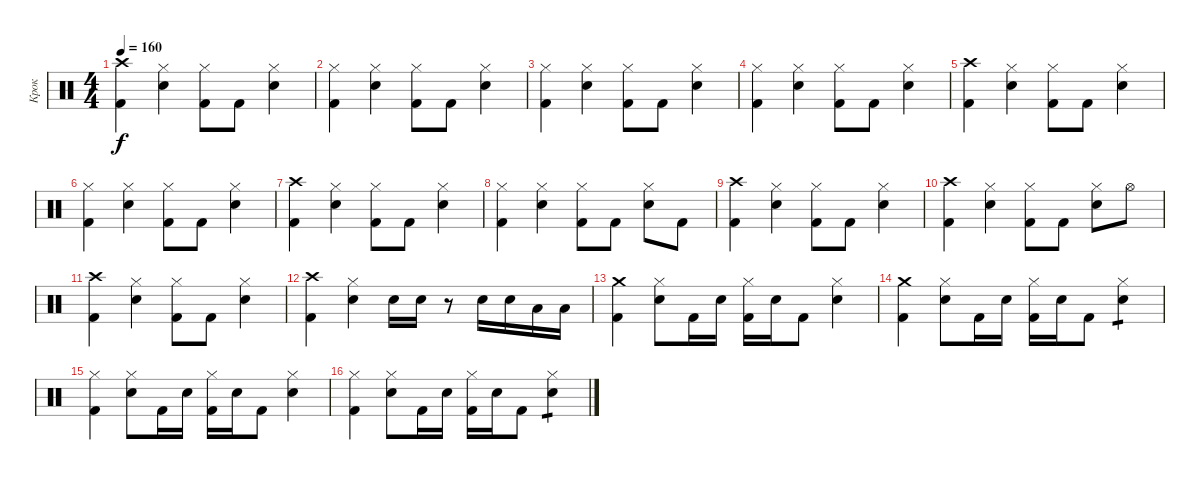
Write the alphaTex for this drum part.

\track ("Крок" "Крок") {instrument percussion}
\staff {score}
\articulation defaults
\ts (4 4)
\tempo 160
\clef neutral
\ks c
("Crash high (hit)" "Kick (hit) 2").4{dy f} ("Hi-Hat (closed)" "Electric Snare (hit)").4 ("Hi-Hat (closed)" "Kick (hit) 2").8 "Kick (hit) 2".8 ("Hi-Hat (closed)" "Electric Snare (hit)").4 |
("Hi-Hat (closed)" "Kick (hit) 2").4 ("Hi-Hat (closed)" "Electric Snare (hit)").4 ("Hi-Hat (closed)" "Kick (hit) 2").8 "Kick (hit) 2".8 ("Hi-Hat (closed)" "Electric Snare (hit)").4 |
("Hi-Hat (closed)" "Kick (hit) 2").4 ("Hi-Hat (closed)" "Electric Snare (hit)").4 ("Hi-Hat (closed)" "Kick (hit) 2").8 "Kick (hit) 2".8 ("Hi-Hat (closed)" "Electric Snare (hit)").4 |
("Hi-Hat (closed)" "Kick (hit) 2").4 ("Hi-Hat (closed)" "Electric Snare (hit)").4 ("Hi-Hat (closed)" "Kick (hit) 2").8 "Kick (hit) 2".8 ("Hi-Hat (closed)" "Electric Snare (hit)").4 |
("Crash high (hit)" "Kick (hit) 2").4 ("Hi-Hat (closed)" "Electric Snare (hit)").4 ("Hi-Hat (closed)" "Kick (hit) 2").8 "Kick (hit) 2".8 ("Hi-Hat (closed)" "Electric Snare (hit)").4 |
("Hi-Hat (closed)" "Kick (hit) 2").4 ("Hi-Hat (closed)" "Electric Snare (hit)").4 ("Hi-Hat (closed)" "Kick (hit) 2").8 "Kick (hit) 2".8 ("Hi-Hat (closed)" "Electric Snare (hit)").4 |
("Crash high (hit)" "Kick (hit) 2").4 ("Hi-Hat (closed)" "Electric Snare (hit)").4 ("Hi-Hat (closed)" "Kick (hit) 2").8 "Kick (hit) 2".8 ("Hi-Hat (closed)" "Electric Snare (hit)").4 |
("Hi-Hat (closed)" "Kick (hit) 2").4 ("Hi-Hat (closed)" "Electric Snare (hit)").4 ("Hi-Hat (closed)" "Kick (hit) 2").8 "Kick (hit) 2".8 ("Hi-Hat (closed)" "Electric Snare (hit)").8 "Kick (hit) 2".8 |
("Crash high (hit)" "Kick (hit) 2").4 ("Hi-Hat (closed)" "Electric Snare (hit)").4 ("Hi-Hat (closed)" "Kick (hit) 2").8 "Kick (hit) 2".8 ("Hi-Hat (closed)" "Electric Snare (hit)").4 |
("Crash high (hit)" "Kick (hit) 2").4 ("Hi-Hat (closed)" "Electric Snare (hit)").4 ("Hi-Hat (closed)" "Kick (hit) 2").8 "Kick (hit) 2".8 ("Hi-Hat (closed)" "Electric Snare (hit)").8 "Hi-Hat (open)".8 |
("Crash high (hit)" "Kick (hit) 2").4 ("Hi-Hat (closed)" "Electric Snare (hit)").4 ("Hi-Hat (closed)" "Kick (hit) 2").8 "Kick (hit) 2".8 ("Hi-Hat (closed)" "Electric Snare (hit)").4 |
("Crash high (hit)" "Kick (hit) 2").4 ("Hi-Hat (closed)" "Electric Snare (hit)").4 "Electric Snare (hit)".16 "Electric Snare (hit)".16 r.8 "Electric Snare (hit)".16 "Electric Snare (hit)".16 "Low Tom (hit)".16 "Low Tom (hit)".16 |
("Crash medium (hit)" "Kick (hit) 2").4 ("Hi-Hat (closed)" "Electric Snare (hit)").8 "Kick (hit) 2".16 "Electric Snare (hit)".16 ("Hi-Hat (closed)" "Kick (hit) 2").16 "Electric Snare (hit)".16 "Kick (hit) 2".8 ("Hi-Hat (closed)" "Electric Snare (hit)").4 |
("Crash medium (hit)" "Kick (hit) 2").4 ("Hi-Hat (closed)" "Electric Snare (hit)").8 "Kick (hit) 2".16 "Electric Snare (hit)".16 ("Hi-Hat (closed)" "Kick (hit) 2").16 "Electric Snare (hit)".16 "Kick (hit) 2".8 ("Hi-Hat (closed)" "Electric Snare (hit)").4{tp 1} |
("Hi-Hat (closed)" "Kick (hit) 2").4 ("Hi-Hat (closed)" "Electric Snare (hit)").8 "Kick (hit) 2".16 "Electric Snare (hit)".16 ("Hi-Hat (closed)" "Kick (hit) 2").16 "Electric Snare (hit)".16 "Kick (hit) 2".8 ("Hi-Hat (closed)" "Electric Snare (hit)").4 |
("Hi-Hat (closed)" "Kick (hit) 2").4 ("Hi-Hat (closed)" "Electric Snare (hit)").8 "Kick (hit) 2".16 "Electric Snare (hit)".16 ("Hi-Hat (closed)" "Kick (hit) 2").16 "Electric Snare (hit)".16 "Kick (hit) 2".8 ("Hi-Hat (closed)" "Electric Snare (hit)").4{tp 1}
